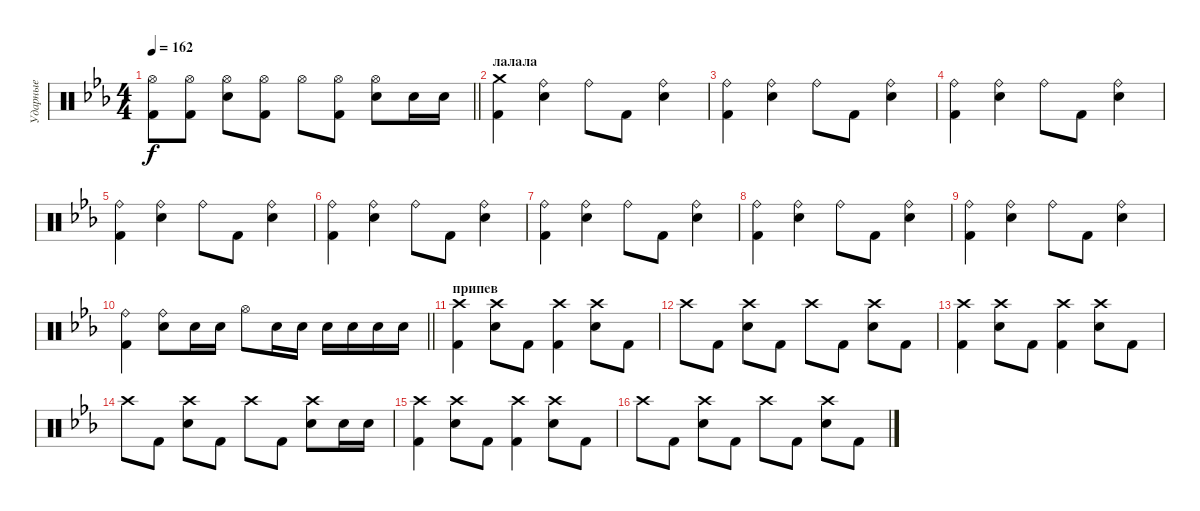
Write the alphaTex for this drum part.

\track ("Ударные" "Ударные") {instrument percussion}
\staff {score}
\articulation defaults
\ts (4 4)
\tempo 162
\clef neutral
\barLineRight lightlight
\ks cminor
("Hi-Hat (open)" "Kick (hit) 2").8{dy f} ("Hi-Hat (open)" "Kick (hit) 2").8 ("Hi-Hat (open)" "Snare (hit) 2").8 ("Hi-Hat (open)" "Kick (hit) 2").8 "Hi-Hat (open)".8 ("Hi-Hat (open)" "Kick (hit) 2").8 ("Hi-Hat (open)" "Snare (hit) 2").8 "Snare (hit) 2".16 "Snare (hit) 2".16 |
\section ("" "лалала")
("Crash medium (hit)" "Kick (hit) 2").4 ("Ride (bell)" "Snare (hit) 2").4 "Ride (bell)".8 "Kick (hit) 2".8 ("Ride (bell)" "Snare (hit) 2").4 |
("Ride (bell)" "Kick (hit) 2").4 ("Ride (bell)" "Snare (hit) 2").4 "Ride (bell)".8 "Kick (hit) 2".8 ("Ride (bell)" "Snare (hit) 2").4 |
("Ride (bell)" "Kick (hit) 2").4 ("Ride (bell)" "Snare (hit) 2").4 "Ride (bell)".8 "Kick (hit) 2".8 ("Ride (bell)" "Snare (hit) 2").4 |
("Ride (bell)" "Kick (hit) 2").4 ("Ride (bell)" "Snare (hit) 2").4 "Ride (bell)".8 "Kick (hit) 2".8 ("Ride (bell)" "Snare (hit) 2").4 |
("Ride (bell)" "Kick (hit) 2").4 ("Ride (bell)" "Snare (hit) 2").4 "Ride (bell)".8 "Kick (hit) 2".8 ("Ride (bell)" "Snare (hit) 2").4 |
("Ride (bell)" "Kick (hit) 2").4 ("Ride (bell)" "Snare (hit) 2").4 "Ride (bell)".8 "Kick (hit) 2".8 ("Ride (bell)" "Snare (hit) 2").4 |
("Ride (bell)" "Kick (hit) 2").4 ("Ride (bell)" "Snare (hit) 2").4 "Ride (bell)".8 "Kick (hit) 2".8 ("Ride (bell)" "Snare (hit) 2").4 |
("Ride (bell)" "Kick (hit) 2").4 ("Ride (bell)" "Snare (hit) 2").4 "Ride (bell)".8 "Kick (hit) 2".8 ("Ride (bell)" "Snare (hit) 2").4 |
\barLineRight lightlight
("Ride (bell)" "Kick (hit) 2").4 ("Ride (bell)" "Snare (hit) 2").8 "Snare (hit) 2".16 "Snare (hit) 2".16 "Hi-Hat (open)".8 "Snare (hit) 2".16 "Snare (hit) 2".16 "Snare (hit) 2".16 "Snare (hit) 2".16 "Snare (hit) 2".16 "Snare (hit) 2".16 |
\section ("" "припев")
("Crash high (hit)" "Kick (hit) 2").4 ("Crash high (hit)" "Snare (hit) 2").8 "Kick (hit) 2".8 ("Crash high (hit)" "Kick (hit) 2").4 ("Crash high (hit)" "Snare (hit) 2").8 "Kick (hit) 2".8 |
"Crash high (hit)".8 "Kick (hit) 2".8 ("Crash high (hit)" "Snare (hit) 2").8 "Kick (hit) 2".8 "Crash high (hit)".8 "Kick (hit) 2".8 ("Crash high (hit)" "Snare (hit) 2").8 "Kick (hit) 2".8 |
("Crash high (hit)" "Kick (hit) 2").4 ("Crash high (hit)" "Snare (hit) 2").8 "Kick (hit) 2".8 ("Crash high (hit)" "Kick (hit) 2").4 ("Crash high (hit)" "Snare (hit) 2").8 "Kick (hit) 2".8 |
"Crash high (hit)".8 "Kick (hit) 2".8 ("Crash high (hit)" "Snare (hit) 2").8 "Kick (hit) 2".8 "Crash high (hit)".8 "Kick (hit) 2".8 ("Crash high (hit)" "Snare (hit) 2").8 "Snare (hit) 2".16 "Snare (hit) 2".16 |
("Crash high (hit)" "Kick (hit) 2").4 ("Crash high (hit)" "Snare (hit) 2").8 "Kick (hit) 2".8 ("Crash high (hit)" "Kick (hit) 2").4 ("Crash high (hit)" "Snare (hit) 2").8 "Kick (hit) 2".8 |
"Crash high (hit)".8 "Kick (hit) 2".8 ("Crash high (hit)" "Snare (hit) 2").8 "Kick (hit) 2".8 "Crash high (hit)".8 "Kick (hit) 2".8 ("Crash high (hit)" "Snare (hit) 2").8 "Kick (hit) 2".8
